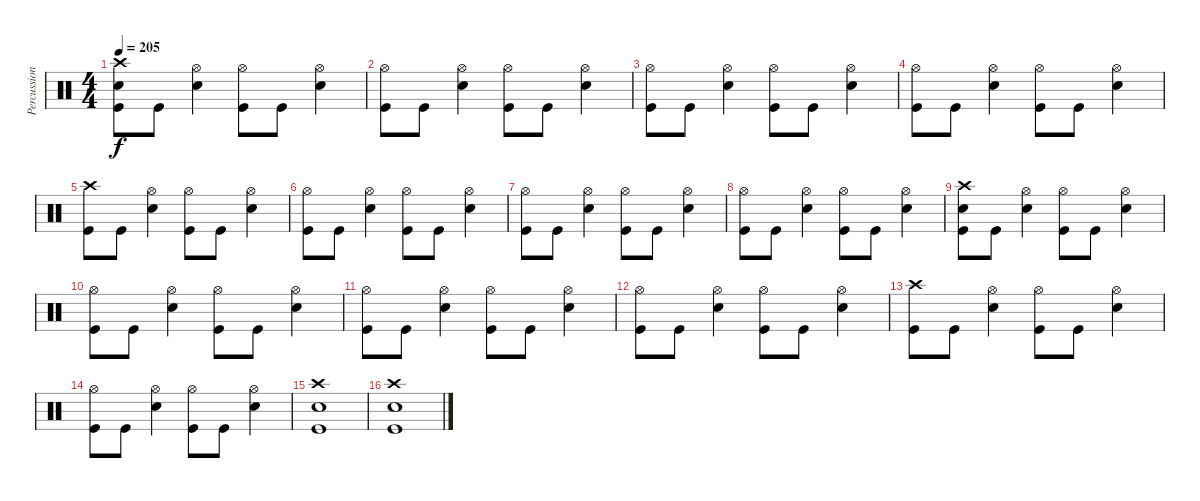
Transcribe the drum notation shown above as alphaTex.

\track ("Percussion" "Percussion") {instrument percussion}
\staff {score}
\articulation defaults
\ts (4 4)
\tempo 205
\clef neutral
\ks c
("Snare (hit) 2" "Kick (hit)" "Crash high (hit)").8{dy f} "Kick (hit)".8 ("Snare (hit) 2" "Hi-Hat (open)").4 ("Kick (hit)" "Hi-Hat (open)").8 "Kick (hit)".8 ("Snare (hit) 2" "Hi-Hat (open)").4 |
("Kick (hit)" "Hi-Hat (open)").8 "Kick (hit)".8 ("Snare (hit) 2" "Hi-Hat (open)").4 ("Kick (hit)" "Hi-Hat (open)").8 "Kick (hit)".8 ("Snare (hit) 2" "Hi-Hat (open)").4 |
("Kick (hit)" "Hi-Hat (open)").8 "Kick (hit)".8 ("Snare (hit) 2" "Hi-Hat (open)").4 ("Kick (hit)" "Hi-Hat (open)").8 "Kick (hit)".8 ("Snare (hit) 2" "Hi-Hat (open)").4 |
("Kick (hit)" "Hi-Hat (open)").8 "Kick (hit)".8 ("Snare (hit) 2" "Hi-Hat (open)").4 ("Kick (hit)" "Hi-Hat (open)").8 "Kick (hit)".8 ("Snare (hit) 2" "Hi-Hat (open)").4 |
("Kick (hit)" "Crash high (hit)").8 "Kick (hit)".8 ("Snare (hit) 2" "Hi-Hat (open)").4 ("Kick (hit)" "Hi-Hat (open)").8 "Kick (hit)".8 ("Snare (hit) 2" "Hi-Hat (open)").4 |
("Kick (hit)" "Hi-Hat (open)").8 "Kick (hit)".8 ("Snare (hit) 2" "Hi-Hat (open)").4 ("Kick (hit)" "Hi-Hat (open)").8 "Kick (hit)".8 ("Snare (hit) 2" "Hi-Hat (open)").4 |
("Kick (hit)" "Hi-Hat (open)").8 "Kick (hit)".8 ("Snare (hit) 2" "Hi-Hat (open)").4 ("Kick (hit)" "Hi-Hat (open)").8 "Kick (hit)".8 ("Snare (hit) 2" "Hi-Hat (open)").4 |
("Kick (hit)" "Hi-Hat (open)").8 "Kick (hit)".8 ("Snare (hit) 2" "Hi-Hat (open)").4 ("Kick (hit)" "Hi-Hat (open)").8 "Kick (hit)".8 ("Snare (hit) 2" "Hi-Hat (open)").4 |
("Snare (hit) 2" "Kick (hit)" "Crash high (hit)").8 "Kick (hit)".8 ("Snare (hit) 2" "Hi-Hat (open)").4 ("Kick (hit)" "Hi-Hat (open)").8 "Kick (hit)".8 ("Snare (hit) 2" "Hi-Hat (open)").4 |
("Kick (hit)" "Hi-Hat (open)").8 "Kick (hit)".8 ("Snare (hit) 2" "Hi-Hat (open)").4 ("Kick (hit)" "Hi-Hat (open)").8 "Kick (hit)".8 ("Snare (hit) 2" "Hi-Hat (open)").4 |
("Kick (hit)" "Hi-Hat (open)").8 "Kick (hit)".8 ("Snare (hit) 2" "Hi-Hat (open)").4 ("Kick (hit)" "Hi-Hat (open)").8 "Kick (hit)".8 ("Snare (hit) 2" "Hi-Hat (open)").4 |
("Kick (hit)" "Hi-Hat (open)").8 "Kick (hit)".8 ("Snare (hit) 2" "Hi-Hat (open)").4 ("Kick (hit)" "Hi-Hat (open)").8 "Kick (hit)".8 ("Snare (hit) 2" "Hi-Hat (open)").4 |
("Kick (hit)" "Crash high (hit)").8 "Kick (hit)".8 ("Snare (hit) 2" "Hi-Hat (open)").4 ("Kick (hit)" "Hi-Hat (open)").8 "Kick (hit)".8 ("Snare (hit) 2" "Hi-Hat (open)").4 |
("Kick (hit)" "Hi-Hat (open)").8 "Kick (hit)".8 ("Snare (hit) 2" "Hi-Hat (open)").4 ("Kick (hit)" "Hi-Hat (open)").8 "Kick (hit)".8 ("Snare (hit) 2" "Hi-Hat (open)").4 |
("Kick (hit)" "Snare (hit) 2" "Crash high (hit)").1 |
("Kick (hit)" "Snare (hit) 2" "Crash high (hit)").1
